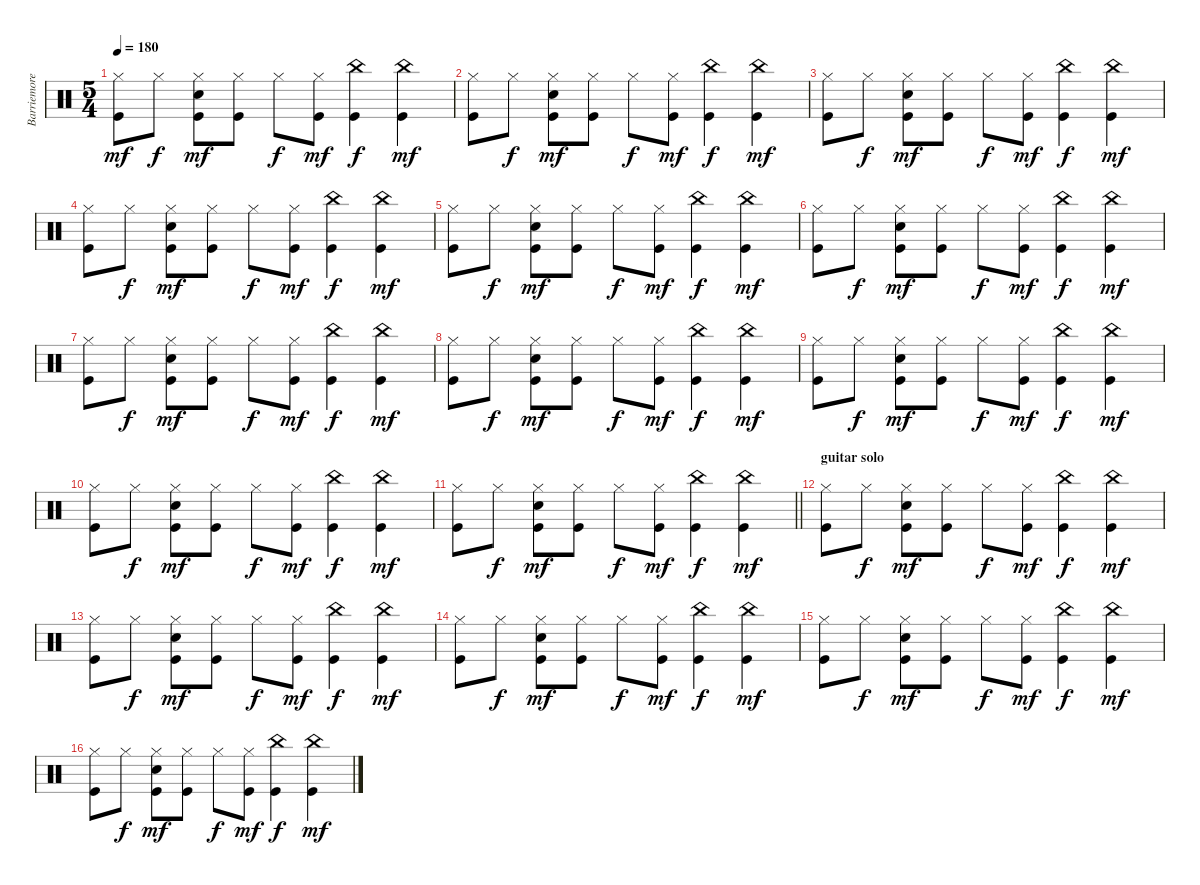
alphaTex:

\track ("Barriemore Barlow (drums)" "Barriemore") {instrument percussion}
\staff {score}
\articulation defaults
\ts (5 4)
\tempo 180
\clef neutral
\ks c
("Hi-Hat (closed)" "Kick (hit)").8{dy mf} "Hi-Hat (closed)".8{dy f} ("Hi-Hat (closed)" "Electric Snare (hit)" "Kick (hit)").8{dy mf} ("Hi-Hat (closed)" "Kick (hit)").8 "Hi-Hat (closed)".8{dy f} ("Hi-Hat (closed)" "Kick (hit)").8{dy mf} ("China (hit)" "Kick (hit)").4{dy f} ("China (hit)" "Kick (hit)").4{dy mf} |
("Hi-Hat (closed)" "Kick (hit)").8 "Hi-Hat (closed)".8{dy f} ("Hi-Hat (closed)" "Electric Snare (hit)" "Kick (hit)").8{dy mf} ("Hi-Hat (closed)" "Kick (hit)").8 "Hi-Hat (closed)".8{dy f} ("Hi-Hat (closed)" "Kick (hit)").8{dy mf} ("China (hit)" "Kick (hit)").4{dy f} ("China (hit)" "Kick (hit)").4{dy mf} |
("Hi-Hat (closed)" "Kick (hit)").8 "Hi-Hat (closed)".8{dy f} ("Hi-Hat (closed)" "Electric Snare (hit)" "Kick (hit)").8{dy mf} ("Hi-Hat (closed)" "Kick (hit)").8 "Hi-Hat (closed)".8{dy f} ("Hi-Hat (closed)" "Kick (hit)").8{dy mf} ("China (hit)" "Kick (hit)").4{dy f} ("China (hit)" "Kick (hit)").4{dy mf} |
("Hi-Hat (closed)" "Kick (hit)").8 "Hi-Hat (closed)".8{dy f} ("Hi-Hat (closed)" "Electric Snare (hit)" "Kick (hit)").8{dy mf} ("Hi-Hat (closed)" "Kick (hit)").8 "Hi-Hat (closed)".8{dy f} ("Hi-Hat (closed)" "Kick (hit)").8{dy mf} ("China (hit)" "Kick (hit)").4{dy f} ("China (hit)" "Kick (hit)").4{dy mf} |
("Hi-Hat (closed)" "Kick (hit)").8 "Hi-Hat (closed)".8{dy f} ("Hi-Hat (closed)" "Electric Snare (hit)" "Kick (hit)").8{dy mf} ("Hi-Hat (closed)" "Kick (hit)").8 "Hi-Hat (closed)".8{dy f} ("Hi-Hat (closed)" "Kick (hit)").8{dy mf} ("China (hit)" "Kick (hit)").4{dy f} ("China (hit)" "Kick (hit)").4{dy mf} |
("Hi-Hat (closed)" "Kick (hit)").8 "Hi-Hat (closed)".8{dy f} ("Hi-Hat (closed)" "Electric Snare (hit)" "Kick (hit)").8{dy mf} ("Hi-Hat (closed)" "Kick (hit)").8 "Hi-Hat (closed)".8{dy f} ("Hi-Hat (closed)" "Kick (hit)").8{dy mf} ("China (hit)" "Kick (hit)").4{dy f} ("China (hit)" "Kick (hit)").4{dy mf} |
("Hi-Hat (closed)" "Kick (hit)").8 "Hi-Hat (closed)".8{dy f} ("Hi-Hat (closed)" "Electric Snare (hit)" "Kick (hit)").8{dy mf} ("Hi-Hat (closed)" "Kick (hit)").8 "Hi-Hat (closed)".8{dy f} ("Hi-Hat (closed)" "Kick (hit)").8{dy mf} ("China (hit)" "Kick (hit)").4{dy f} ("China (hit)" "Kick (hit)").4{dy mf} |
("Hi-Hat (closed)" "Kick (hit)").8 "Hi-Hat (closed)".8{dy f} ("Hi-Hat (closed)" "Electric Snare (hit)" "Kick (hit)").8{dy mf} ("Hi-Hat (closed)" "Kick (hit)").8 "Hi-Hat (closed)".8{dy f} ("Hi-Hat (closed)" "Kick (hit)").8{dy mf} ("China (hit)" "Kick (hit)").4{dy f} ("China (hit)" "Kick (hit)").4{dy mf} |
("Hi-Hat (closed)" "Kick (hit)").8 "Hi-Hat (closed)".8{dy f} ("Hi-Hat (closed)" "Electric Snare (hit)" "Kick (hit)").8{dy mf} ("Hi-Hat (closed)" "Kick (hit)").8 "Hi-Hat (closed)".8{dy f} ("Hi-Hat (closed)" "Kick (hit)").8{dy mf} ("China (hit)" "Kick (hit)").4{dy f} ("China (hit)" "Kick (hit)").4{dy mf} |
("Hi-Hat (closed)" "Kick (hit)").8 "Hi-Hat (closed)".8{dy f} ("Hi-Hat (closed)" "Electric Snare (hit)" "Kick (hit)").8{dy mf} ("Hi-Hat (closed)" "Kick (hit)").8 "Hi-Hat (closed)".8{dy f} ("Hi-Hat (closed)" "Kick (hit)").8{dy mf} ("China (hit)" "Kick (hit)").4{dy f} ("China (hit)" "Kick (hit)").4{dy mf} |
\barLineRight lightlight
("Hi-Hat (closed)" "Kick (hit)").8 "Hi-Hat (closed)".8{dy f} ("Hi-Hat (closed)" "Electric Snare (hit)" "Kick (hit)").8{dy mf} ("Hi-Hat (closed)" "Kick (hit)").8 "Hi-Hat (closed)".8{dy f} ("Hi-Hat (closed)" "Kick (hit)").8{dy mf} ("China (hit)" "Kick (hit)").4{dy f} ("China (hit)" "Kick (hit)").4{dy mf} |
\section ("" "guitar solo")
("Hi-Hat (closed)" "Kick (hit)").8 "Hi-Hat (closed)".8{dy f} ("Hi-Hat (closed)" "Electric Snare (hit)" "Kick (hit)").8{dy mf} ("Hi-Hat (closed)" "Kick (hit)").8 "Hi-Hat (closed)".8{dy f} ("Hi-Hat (closed)" "Kick (hit)").8{dy mf} ("China (hit)" "Kick (hit)").4{dy f} ("China (hit)" "Kick (hit)").4{dy mf} |
("Hi-Hat (closed)" "Kick (hit)").8 "Hi-Hat (closed)".8{dy f} ("Hi-Hat (closed)" "Electric Snare (hit)" "Kick (hit)").8{dy mf} ("Hi-Hat (closed)" "Kick (hit)").8 "Hi-Hat (closed)".8{dy f} ("Hi-Hat (closed)" "Kick (hit)").8{dy mf} ("China (hit)" "Kick (hit)").4{dy f} ("China (hit)" "Kick (hit)").4{dy mf} |
("Hi-Hat (closed)" "Kick (hit)").8 "Hi-Hat (closed)".8{dy f} ("Hi-Hat (closed)" "Electric Snare (hit)" "Kick (hit)").8{dy mf} ("Hi-Hat (closed)" "Kick (hit)").8 "Hi-Hat (closed)".8{dy f} ("Hi-Hat (closed)" "Kick (hit)").8{dy mf} ("China (hit)" "Kick (hit)").4{dy f} ("China (hit)" "Kick (hit)").4{dy mf} |
("Hi-Hat (closed)" "Kick (hit)").8 "Hi-Hat (closed)".8{dy f} ("Hi-Hat (closed)" "Electric Snare (hit)" "Kick (hit)").8{dy mf} ("Hi-Hat (closed)" "Kick (hit)").8 "Hi-Hat (closed)".8{dy f} ("Hi-Hat (closed)" "Kick (hit)").8{dy mf} ("China (hit)" "Kick (hit)").4{dy f} ("China (hit)" "Kick (hit)").4{dy mf} |
("Hi-Hat (closed)" "Kick (hit)").8 "Hi-Hat (closed)".8{dy f} ("Hi-Hat (closed)" "Electric Snare (hit)" "Kick (hit)").8{dy mf} ("Hi-Hat (closed)" "Kick (hit)").8 "Hi-Hat (closed)".8{dy f} ("Hi-Hat (closed)" "Kick (hit)").8{dy mf} ("China (hit)" "Kick (hit)").4{dy f} ("China (hit)" "Kick (hit)").4{dy mf}
